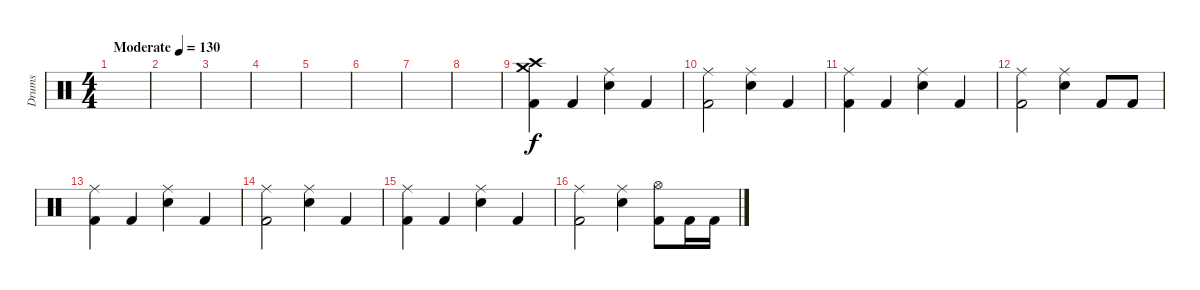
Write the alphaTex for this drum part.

\track ("Drums" "Drums") {instrument percussion}
\staff {score}
\articulation defaults
\ts (4 4)
\tempo (130 "Moderate")
\clef neutral
\ks c
|
|
|
|
|
|
|
|
("Crash medium (hit)" "Crash high (hit)" "Kick (hit) 2").4{volume 14} "Kick (hit) 2".4 ("Ride (middle)" "Electric Snare (hit)").4 "Kick (hit) 2".4 |
("Ride (middle)" "Kick (hit) 2").2 ("Ride (middle)" "Electric Snare (hit)").4 "Kick (hit) 2".4 |
("Ride (middle)" "Kick (hit) 2").4 "Kick (hit) 2".4 ("Ride (middle)" "Electric Snare (hit)").4 "Kick (hit) 2".4 |
("Ride (middle)" "Kick (hit) 2").2 ("Ride (middle)" "Electric Snare (hit)").4 "Kick (hit) 2".8 "Kick (hit) 2".8 |
("Ride (middle)" "Kick (hit) 2").4 "Kick (hit) 2".4 ("Ride (middle)" "Electric Snare (hit)").4 "Kick (hit) 2".4 |
("Ride (middle)" "Kick (hit) 2").2 ("Ride (middle)" "Electric Snare (hit)").4 "Kick (hit) 2".4 |
("Ride (middle)" "Kick (hit) 2").4 "Kick (hit) 2".4 ("Ride (middle)" "Electric Snare (hit)").4 "Kick (hit) 2".4 |
("Ride (middle)" "Kick (hit) 2").2 ("Ride (middle)" "Electric Snare (hit)").4 ("Hi-Hat (open)" "Kick (hit) 2").8 "Kick (hit) 2".16 "Kick (hit) 2".16
